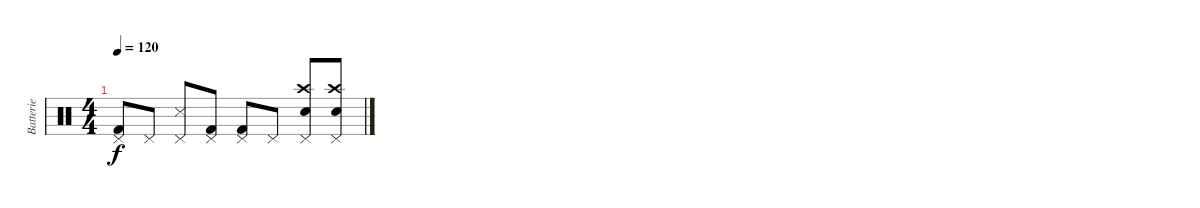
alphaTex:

\track ("Batterie" "Batterie") {instrument percussion}
\staff {score}
\articulation defaults
\ts (4 4)
\tempo 120
\clef neutral
\ks c
("Pedal Hi-Hat (hit)" "Kick (hit) 2").8{dy f} "Pedal Hi-Hat (hit)".8 ("Pedal Hi-Hat (hit)" "Snare (side stick) 3").8 ("Pedal Hi-Hat (hit)" "Kick (hit) 2").8 ("Pedal Hi-Hat (hit)" "Kick (hit) 2").8 "Pedal Hi-Hat (hit)".8 ("Crash high (hit)" "Pedal Hi-Hat (hit)" "Snare (hit) 2").8 ("Crash high (hit)" "Pedal Hi-Hat (hit)" "Snare (hit) 2").8
